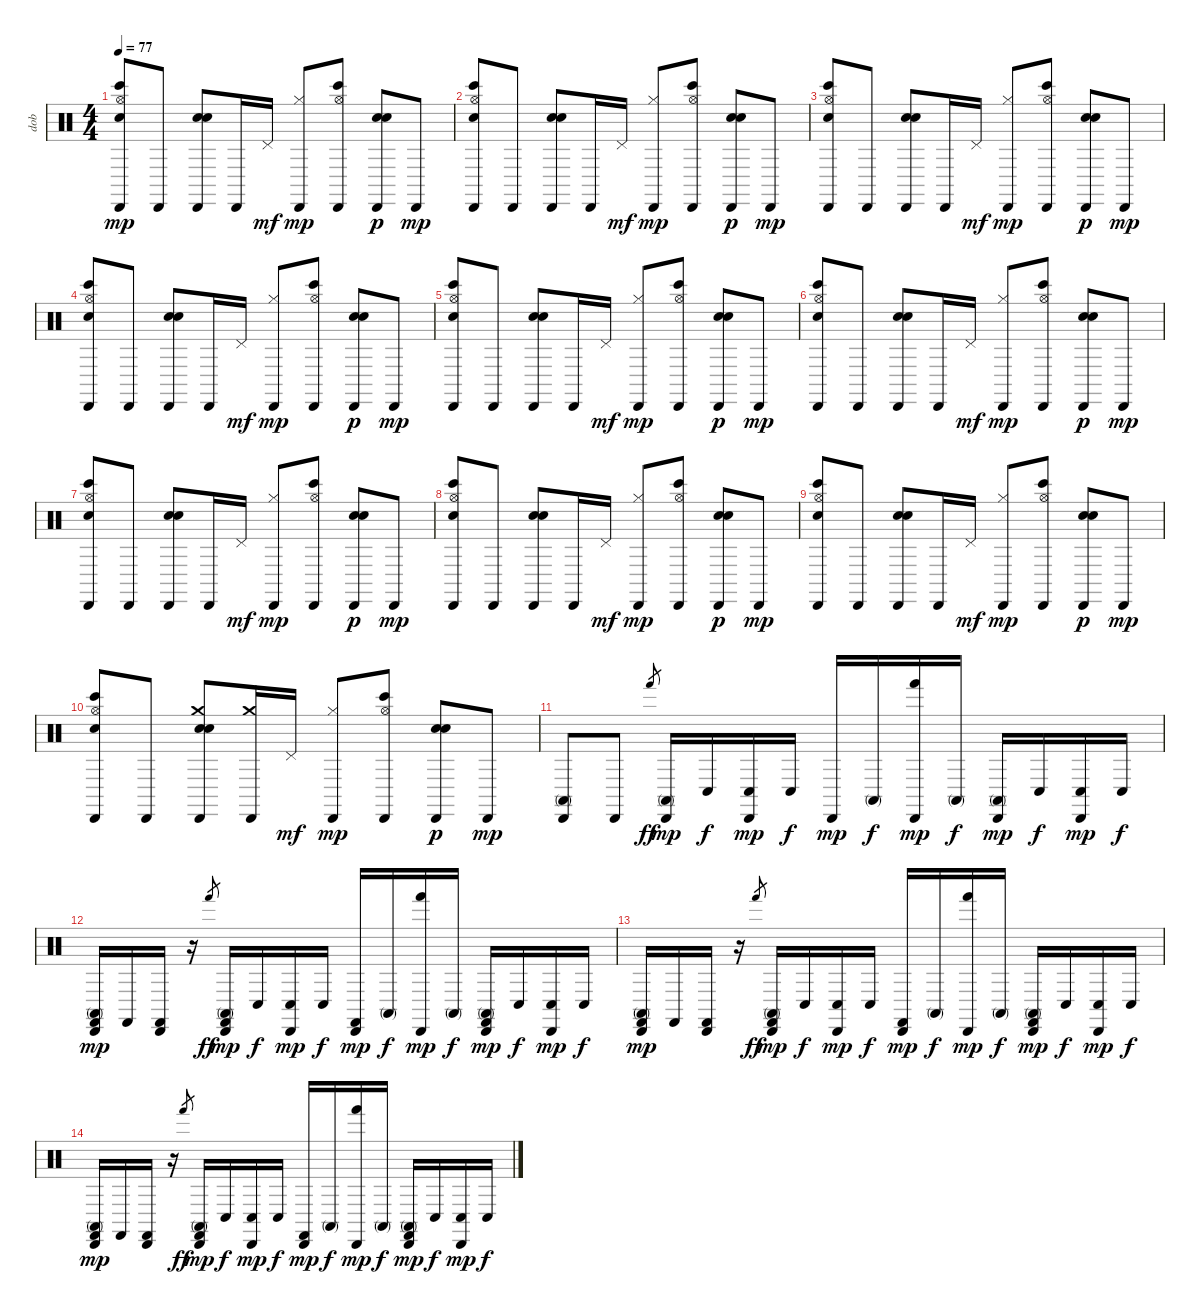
\track ("dob" "dob") {instrument percussion}
\staff {score}
\articulation defaults
\ts (4 4)
\tempo 77
\clef neutral
\ks c
("Bongo High (hit)" "Cabasa (hit)" "Snare (hit) 2" "Hi-Hat (open)").8{dy mp} "Cabasa (hit)".8 ("Electric Snare (hit)" "Cabasa (hit)" "Hand Clap (hit)").8 "Cabasa (hit)".16 "Pedal Hi-Hat (hit)".16{dy mf} ("Cabasa (hit)" "Hi-Hat (closed)").8{dy mp} ("Bongo High (hit)" "Cabasa (hit)" "Hi-Hat (open)").8 ("Electric Snare (hit)" "Cabasa (hit)" "Hand Clap (hit)").8{dy p} "Cabasa (hit)".8{dy mp} |
("Bongo High (hit)" "Cabasa (hit)" "Snare (hit) 2" "Hi-Hat (open)").8 "Cabasa (hit)".8 ("Electric Snare (hit)" "Cabasa (hit)" "Hand Clap (hit)").8 "Cabasa (hit)".16 "Pedal Hi-Hat (hit)".16{dy mf} ("Cabasa (hit)" "Hi-Hat (closed)").8{dy mp} ("Bongo High (hit)" "Cabasa (hit)" "Hi-Hat (open)").8 ("Electric Snare (hit)" "Cabasa (hit)" "Hand Clap (hit)").8{dy p} "Cabasa (hit)".8{dy mp} |
("Bongo High (hit)" "Cabasa (hit)" "Snare (hit) 2" "Hi-Hat (open)").8 "Cabasa (hit)".8 ("Electric Snare (hit)" "Cabasa (hit)" "Hand Clap (hit)").8 "Cabasa (hit)".16 "Pedal Hi-Hat (hit)".16{dy mf} ("Cabasa (hit)" "Hi-Hat (closed)").8{dy mp} ("Bongo High (hit)" "Cabasa (hit)" "Hi-Hat (open)").8 ("Electric Snare (hit)" "Cabasa (hit)" "Hand Clap (hit)").8{dy p} "Cabasa (hit)".8{dy mp} |
("Bongo High (hit)" "Cabasa (hit)" "Snare (hit) 2" "Hi-Hat (open)").8 "Cabasa (hit)".8 ("Electric Snare (hit)" "Cabasa (hit)" "Hand Clap (hit)").8 "Cabasa (hit)".16 "Pedal Hi-Hat (hit)".16{dy mf} ("Cabasa (hit)" "Hi-Hat (closed)").8{dy mp} ("Bongo High (hit)" "Cabasa (hit)" "Hi-Hat (open)").8 ("Electric Snare (hit)" "Cabasa (hit)" "Hand Clap (hit)").8{dy p} "Cabasa (hit)".8{dy mp} |
("Bongo High (hit)" "Cabasa (hit)" "Snare (hit) 2" "Hi-Hat (open)").8 "Cabasa (hit)".8 ("Electric Snare (hit)" "Cabasa (hit)" "Hand Clap (hit)").8 "Cabasa (hit)".16 "Pedal Hi-Hat (hit)".16{dy mf} ("Cabasa (hit)" "Hi-Hat (closed)").8{dy mp} ("Bongo High (hit)" "Cabasa (hit)" "Hi-Hat (open)").8 ("Electric Snare (hit)" "Cabasa (hit)" "Hand Clap (hit)").8{dy p} "Cabasa (hit)".8{dy mp} |
("Bongo High (hit)" "Cabasa (hit)" "Snare (hit) 2" "Hi-Hat (open)").8 "Cabasa (hit)".8 ("Electric Snare (hit)" "Cabasa (hit)" "Hand Clap (hit)").8 "Cabasa (hit)".16 "Pedal Hi-Hat (hit)".16{dy mf} ("Cabasa (hit)" "Hi-Hat (closed)").8{dy mp} ("Bongo High (hit)" "Cabasa (hit)" "Hi-Hat (open)").8 ("Electric Snare (hit)" "Cabasa (hit)" "Hand Clap (hit)").8{dy p} "Cabasa (hit)".8{dy mp} |
("Bongo High (hit)" "Cabasa (hit)" "Snare (hit) 2" "Hi-Hat (open)").8 "Cabasa (hit)".8 ("Electric Snare (hit)" "Cabasa (hit)" "Hand Clap (hit)").8 "Cabasa (hit)".16 "Pedal Hi-Hat (hit)".16{dy mf} ("Cabasa (hit)" "Hi-Hat (closed)").8{dy mp} ("Bongo High (hit)" "Cabasa (hit)" "Hi-Hat (open)").8 ("Electric Snare (hit)" "Cabasa (hit)" "Hand Clap (hit)").8{dy p} "Cabasa (hit)".8{dy mp} |
("Bongo High (hit)" "Cabasa (hit)" "Snare (hit) 2" "Hi-Hat (open)").8 "Cabasa (hit)".8 ("Electric Snare (hit)" "Cabasa (hit)" "Hand Clap (hit)").8 "Cabasa (hit)".16 "Pedal Hi-Hat (hit)".16{dy mf} ("Cabasa (hit)" "Hi-Hat (closed)").8{dy mp} ("Bongo High (hit)" "Cabasa (hit)" "Hi-Hat (open)").8 ("Electric Snare (hit)" "Cabasa (hit)" "Hand Clap (hit)").8{dy p} "Cabasa (hit)".8{dy mp} |
("Bongo High (hit)" "Cabasa (hit)" "Snare (hit) 2" "Hi-Hat (open)").8 "Cabasa (hit)".8 ("Electric Snare (hit)" "Cabasa (hit)" "Hand Clap (hit)").8 "Cabasa (hit)".16 "Pedal Hi-Hat (hit)".16{dy mf} ("Cabasa (hit)" "Hi-Hat (closed)").8{dy mp} ("Bongo High (hit)" "Cabasa (hit)" "Hi-Hat (open)").8 ("Electric Snare (hit)" "Cabasa (hit)" "Hand Clap (hit)").8{dy p} "Cabasa (hit)".8{dy mp} |
("Bongo High (hit)" "Cabasa (hit)" "Snare (hit) 2" "Hi-Hat (open)").8 "Cabasa (hit)".8 ("Crash medium (hit)"{tr (57 64)} "Electric Snare (hit)" "Cabasa (hit)" "Hand Clap (hit)").8 ("Crash medium (hit)"{tr (57 64)} "Cabasa (hit)").16 "Pedal Hi-Hat (hit)".16{dy mf} ("Cabasa (hit)" "Hi-Hat (closed)").8{dy mp} ("Bongo High (hit)" "Cabasa (hit)" "Hi-Hat (open)").8 ("Electric Snare (hit)" "Cabasa (hit)" "Hand Clap (hit)").8{dy p} "Cabasa (hit)".8{dy mp} |
("Conga high (mute)" "Cabasa (hit)").8 "Cabasa (hit)".8 "Hand (hit)".8{gr dy ff} ("Conga high (mute)" "Cabasa (hit)").16{dy mp} "Conga low (hit)".16{dy f} ("Conga low (hit)" "Cabasa (hit)").16{dy mp} "Conga low (hit)".16{dy f} "Cabasa (hit)".16{dy mp} "Conga high (mute)".16{dy f} ("Hand (hit)" "Cabasa (hit)").16{dy mp} "Conga high (mute)".16{dy f} ("Conga high (mute)" "Cabasa (hit)").16{dy mp} "Conga low (hit)".16{dy f} ("Conga low (hit)" "Cabasa (hit)").16{dy mp} "Conga low (hit)".16{dy f} |
("Conga high (mute)" "Castanets (hit)" "Cabasa (hit)").16{dy mp} "Castanets (hit)".16 ("Castanets (hit)" "Cabasa (hit)").16 r.16 "Hand (hit)".8{gr dy ff} ("Conga high (mute)" "Castanets (hit)" "Cabasa (hit)").16{dy mp} "Conga low (hit)".16{dy f} ("Conga low (hit)" "Cabasa (hit)").16{dy mp} "Conga low (hit)".16{dy f} ("Castanets (hit)" "Cabasa (hit)").16{dy mp} "Conga high (mute)".16{dy f} ("Hand (hit)" "Cabasa (hit)").16{dy mp} "Conga high (mute)".16{dy f} ("Conga high (mute)" "Castanets (hit)" "Cabasa (hit)").16{dy mp} "Conga low (hit)".16{dy f} ("Conga low (hit)" "Cabasa (hit)").16{dy mp} "Conga low (hit)".16{dy f} |
("Conga high (mute)" "Castanets (hit)" "Cabasa (hit)").16{dy mp} "Castanets (hit)".16 ("Castanets (hit)" "Cabasa (hit)").16 r.16 "Hand (hit)".8{gr dy ff} ("Conga high (mute)" "Castanets (hit)" "Cabasa (hit)").16{dy mp} "Conga low (hit)".16{dy f} ("Conga low (hit)" "Cabasa (hit)").16{dy mp} "Conga low (hit)".16{dy f} ("Castanets (hit)" "Cabasa (hit)").16{dy mp} "Conga high (mute)".16{dy f} ("Hand (hit)" "Cabasa (hit)").16{dy mp} "Conga high (mute)".16{dy f} ("Conga high (mute)" "Castanets (hit)" "Cabasa (hit)").16{dy mp} "Conga low (hit)".16{dy f} ("Conga low (hit)" "Cabasa (hit)").16{dy mp} "Conga low (hit)".16{dy f} |
("Conga high (mute)" "Castanets (hit)" "Cabasa (hit)").16{dy mp} "Castanets (hit)".16 ("Castanets (hit)" "Cabasa (hit)").16 r.16 "Hand (hit)".8{gr dy ff} ("Conga high (mute)" "Castanets (hit)" "Cabasa (hit)").16{dy mp} "Conga low (hit)".16{dy f} ("Conga low (hit)" "Cabasa (hit)").16{dy mp} "Conga low (hit)".16{dy f} ("Castanets (hit)" "Cabasa (hit)").16{dy mp} "Conga high (mute)".16{dy f} ("Hand (hit)" "Cabasa (hit)").16{dy mp} "Conga high (mute)".16{dy f} ("Conga high (mute)" "Castanets (hit)" "Cabasa (hit)").16{dy mp} "Conga low (hit)".16{dy f} ("Conga low (hit)" "Cabasa (hit)").16{dy mp} "Conga low (hit)".16{dy f}
